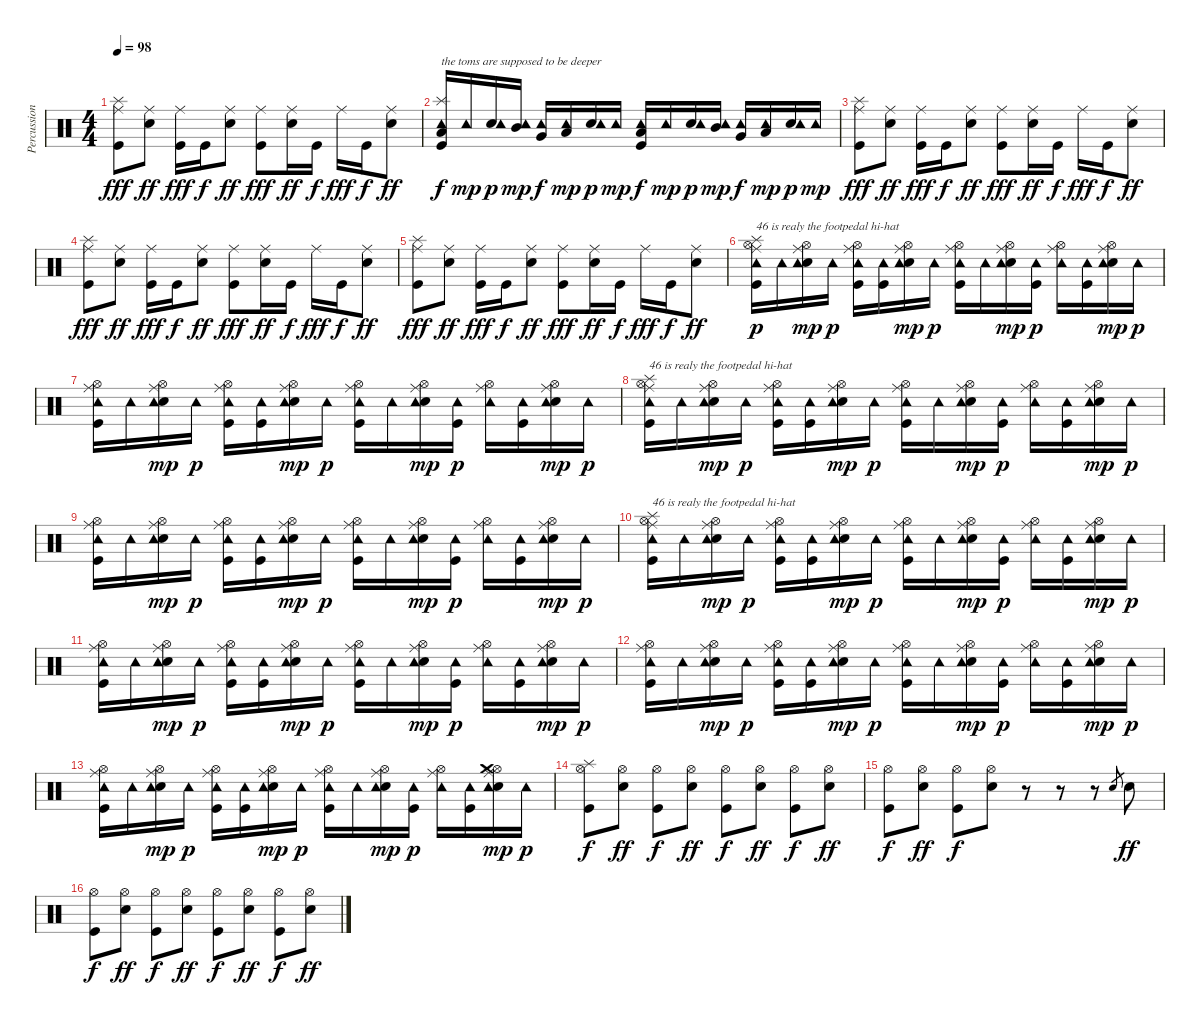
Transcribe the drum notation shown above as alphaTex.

\track ("Percussion" "Percussion") {instrument percussion}
\staff {score}
\articulation defaults
\ts (4 4)
\tempo 98
\clef neutral
\ks c
("Ride (middle)" "Kick (hit)" "Splash (hit)").8{dy fff} ("Ride (middle)" "Snare (hit) 2").8{dy ff} ("Ride (middle)" "Kick (hit)").16{dy fff} "Kick (hit)".16{dy f} ("Ride (middle)" "Snare (hit) 2").8{dy ff} ("Ride (middle)" "Kick (hit)").8{dy fff} ("Ride (middle)" "Snare (hit) 2").16{dy ff} "Kick (hit)".16{dy f} "Ride (middle)".16{dy fff} "Kick (hit)".16{dy f} ("Ride (middle)" "Snare (hit) 2").8{dy ff} |
("Splash (hit)" "Low Floor Tom (hit)" "Kick (hit)" "Tambourine (hit)").16{txt "the toms are supposed to be deeper" dy f} "Tambourine (hit)".16{dy mp} ("Snare (hit) 2" "Tambourine (hit)").16{dy p} ("Mid Tom (hit)" "Tambourine (hit)").16{dy mp} ("Very Low Tom (hit)" "Tambourine (hit)").16{dy f} ("Low Tom (hit)" "Tambourine (hit)").16{dy mp} ("Snare (hit) 2" "Tambourine (hit)").16{dy p} "Tambourine (hit)".16{dy mp} ("Low Floor Tom (hit)" "Kick (hit)" "Tambourine (hit)").16{dy f} "Tambourine (hit)".16{dy mp} ("Snare (hit) 2" "Tambourine (hit)").16{dy p} ("Mid Tom (hit)" "Tambourine (hit)").16{dy mp} ("Very Low Tom (hit)" "Tambourine (hit)").16{dy f} ("Low Tom (hit)" "Tambourine (hit)").16{dy mp} ("Snare (hit) 2" "Tambourine (hit)").16{dy p} "Tambourine (hit)".16{dy mp} |
("Ride (middle)" "Kick (hit)" "Splash (hit)").8{dy fff} ("Ride (middle)" "Snare (hit) 2").8{dy ff} ("Ride (middle)" "Kick (hit)").16{dy fff} "Kick (hit)".16{dy f} ("Ride (middle)" "Snare (hit) 2").8{dy ff} ("Ride (middle)" "Kick (hit)").8{dy fff} ("Ride (middle)" "Snare (hit) 2").16{dy ff} "Kick (hit)".16{dy f} "Ride (middle)".16{dy fff} "Kick (hit)".16{dy f} ("Ride (middle)" "Snare (hit) 2").8{dy ff} |
("Ride (middle)" "Kick (hit)" "Splash (hit)").8{dy fff} ("Ride (middle)" "Snare (hit) 2").8{dy ff} ("Ride (middle)" "Kick (hit)").16{dy fff} "Kick (hit)".16{dy f} ("Ride (middle)" "Snare (hit) 2").8{dy ff} ("Ride (middle)" "Kick (hit)").8{dy fff} ("Ride (middle)" "Snare (hit) 2").16{dy ff} "Kick (hit)".16{dy f} "Ride (middle)".16{dy fff} "Kick (hit)".16{dy f} ("Ride (middle)" "Snare (hit) 2").8{dy ff} |
("Ride (middle)" "Kick (hit)" "Splash (hit)").8{dy fff} ("Ride (middle)" "Snare (hit) 2").8{dy ff} ("Ride (middle)" "Kick (hit)").16{dy fff} "Kick (hit)".16{dy f} ("Ride (middle)" "Snare (hit) 2").8{dy ff} ("Ride (middle)" "Kick (hit)").8{dy fff} ("Ride (middle)" "Snare (hit) 2").16{dy ff} "Kick (hit)".16{dy f} "Ride (middle)".16{dy fff} "Kick (hit)".16{dy f} ("Ride (middle)" "Snare (hit) 2").8{dy ff} |
("Ride (middle)" "Hi-Hat (open)" "Kick (hit)" "Tambourine (hit)" "Splash (hit)").16{txt "46 is realy the footpedal hi-hat" dy p} "Tambourine (hit)".16 ("Ride (middle)" "Hi-Hat (open)" "Snare (hit) 2" "Tambourine (hit)").16{dy mp} "Tambourine (hit)".16{dy p} ("Ride (middle)" "Hi-Hat (open)" "Kick (hit)" "Tambourine (hit)").16 ("Kick (hit)" "Tambourine (hit)").16 ("Ride (middle)" "Hi-Hat (open)" "Snare (hit) 2" "Tambourine (hit)").16{dy mp} "Tambourine (hit)".16{dy p} ("Ride (middle)" "Hi-Hat (open)" "Kick (hit)" "Tambourine (hit)").16 "Tambourine (hit)".16 ("Ride (middle)" "Hi-Hat (open)" "Snare (hit) 2" "Tambourine (hit)").16{dy mp} ("Kick (hit)" "Tambourine (hit)").16{dy p} ("Ride (middle)" "Hi-Hat (open)" "Tambourine (hit)").16 ("Kick (hit)" "Tambourine (hit)").16 ("Ride (middle)" "Hi-Hat (open)" "Snare (hit) 2" "Tambourine (hit)").16{dy mp} "Tambourine (hit)".16{dy p} |
("Ride (middle)" "Hi-Hat (open)" "Kick (hit)" "Tambourine (hit)").16 "Tambourine (hit)".16 ("Ride (middle)" "Hi-Hat (open)" "Snare (hit) 2" "Tambourine (hit)").16{dy mp} "Tambourine (hit)".16{dy p} ("Ride (middle)" "Hi-Hat (open)" "Kick (hit)" "Tambourine (hit)").16 ("Kick (hit)" "Tambourine (hit)").16 ("Ride (middle)" "Hi-Hat (open)" "Snare (hit) 2" "Tambourine (hit)").16{dy mp} "Tambourine (hit)".16{dy p} ("Ride (middle)" "Hi-Hat (open)" "Kick (hit)" "Tambourine (hit)").16 "Tambourine (hit)".16 ("Ride (middle)" "Hi-Hat (open)" "Snare (hit) 2" "Tambourine (hit)").16{dy mp} ("Kick (hit)" "Tambourine (hit)").16{dy p} ("Ride (middle)" "Hi-Hat (open)" "Tambourine (hit)").16 ("Kick (hit)" "Tambourine (hit)").16 ("Ride (middle)" "Hi-Hat (open)" "Snare (hit) 2" "Tambourine (hit)").16{dy mp} "Tambourine (hit)".16{dy p} |
("Ride (middle)" "Hi-Hat (open)" "Kick (hit)" "Tambourine (hit)" "Splash (hit)").16{txt "46 is realy the footpedal hi-hat"} "Tambourine (hit)".16 ("Ride (middle)" "Hi-Hat (open)" "Snare (hit) 2" "Tambourine (hit)").16{dy mp} "Tambourine (hit)".16{dy p} ("Ride (middle)" "Hi-Hat (open)" "Kick (hit)" "Tambourine (hit)").16 ("Kick (hit)" "Tambourine (hit)").16 ("Ride (middle)" "Hi-Hat (open)" "Snare (hit) 2" "Tambourine (hit)").16{dy mp} "Tambourine (hit)".16{dy p} ("Ride (middle)" "Hi-Hat (open)" "Kick (hit)" "Tambourine (hit)").16 "Tambourine (hit)".16 ("Ride (middle)" "Hi-Hat (open)" "Snare (hit) 2" "Tambourine (hit)").16{dy mp} ("Kick (hit)" "Tambourine (hit)").16{dy p} ("Ride (middle)" "Hi-Hat (open)" "Tambourine (hit)").16 ("Kick (hit)" "Tambourine (hit)").16 ("Ride (middle)" "Hi-Hat (open)" "Snare (hit) 2" "Tambourine (hit)").16{dy mp} "Tambourine (hit)".16{dy p} |
("Ride (middle)" "Hi-Hat (open)" "Kick (hit)" "Tambourine (hit)").16 "Tambourine (hit)".16 ("Ride (middle)" "Hi-Hat (open)" "Snare (hit) 2" "Tambourine (hit)").16{dy mp} "Tambourine (hit)".16{dy p} ("Ride (middle)" "Hi-Hat (open)" "Kick (hit)" "Tambourine (hit)").16 ("Kick (hit)" "Tambourine (hit)").16 ("Ride (middle)" "Hi-Hat (open)" "Snare (hit) 2" "Tambourine (hit)").16{dy mp} "Tambourine (hit)".16{dy p} ("Ride (middle)" "Hi-Hat (open)" "Kick (hit)" "Tambourine (hit)").16 "Tambourine (hit)".16 ("Ride (middle)" "Hi-Hat (open)" "Snare (hit) 2" "Tambourine (hit)").16{dy mp} ("Kick (hit)" "Tambourine (hit)").16{dy p} ("Ride (middle)" "Hi-Hat (open)" "Tambourine (hit)").16 ("Kick (hit)" "Tambourine (hit)").16 ("Ride (middle)" "Hi-Hat (open)" "Snare (hit) 2" "Tambourine (hit)").16{dy mp} "Tambourine (hit)".16{dy p} |
("Ride (middle)" "Hi-Hat (open)" "Kick (hit)" "Tambourine (hit)" "Splash (hit)").16{txt "46 is realy the footpedal hi-hat"} "Tambourine (hit)".16 ("Ride (middle)" "Hi-Hat (open)" "Snare (hit) 2" "Tambourine (hit)").16{dy mp} "Tambourine (hit)".16{dy p} ("Ride (middle)" "Hi-Hat (open)" "Kick (hit)" "Tambourine (hit)").16 ("Kick (hit)" "Tambourine (hit)").16 ("Ride (middle)" "Hi-Hat (open)" "Snare (hit) 2" "Tambourine (hit)").16{dy mp} "Tambourine (hit)".16{dy p} ("Ride (middle)" "Hi-Hat (open)" "Kick (hit)" "Tambourine (hit)").16 "Tambourine (hit)".16 ("Ride (middle)" "Hi-Hat (open)" "Snare (hit) 2" "Tambourine (hit)").16{dy mp} ("Kick (hit)" "Tambourine (hit)").16{dy p} ("Ride (middle)" "Hi-Hat (open)" "Tambourine (hit)").16 ("Kick (hit)" "Tambourine (hit)").16 ("Ride (middle)" "Hi-Hat (open)" "Snare (hit) 2" "Tambourine (hit)").16{dy mp} "Tambourine (hit)".16{dy p} |
("Ride (middle)" "Hi-Hat (open)" "Kick (hit)" "Tambourine (hit)").16 "Tambourine (hit)".16 ("Ride (middle)" "Hi-Hat (open)" "Snare (hit) 2" "Tambourine (hit)").16{dy mp} "Tambourine (hit)".16{dy p} ("Ride (middle)" "Hi-Hat (open)" "Kick (hit)" "Tambourine (hit)").16 ("Kick (hit)" "Tambourine (hit)").16 ("Ride (middle)" "Hi-Hat (open)" "Snare (hit) 2" "Tambourine (hit)").16{dy mp} "Tambourine (hit)".16{dy p} ("Ride (middle)" "Hi-Hat (open)" "Kick (hit)" "Tambourine (hit)").16 "Tambourine (hit)".16 ("Ride (middle)" "Hi-Hat (open)" "Snare (hit) 2" "Tambourine (hit)").16{dy mp} ("Kick (hit)" "Tambourine (hit)").16{dy p} ("Ride (middle)" "Hi-Hat (open)" "Tambourine (hit)").16 ("Kick (hit)" "Tambourine (hit)").16 ("Ride (middle)" "Hi-Hat (open)" "Snare (hit) 2" "Tambourine (hit)").16{dy mp} "Tambourine (hit)".16{dy p} |
("Ride (middle)" "Hi-Hat (open)" "Kick (hit)" "Tambourine (hit)").16 "Tambourine (hit)".16 ("Ride (middle)" "Hi-Hat (open)" "Snare (hit) 2" "Tambourine (hit)").16{dy mp} "Tambourine (hit)".16{dy p} ("Ride (middle)" "Hi-Hat (open)" "Kick (hit)" "Tambourine (hit)").16 ("Kick (hit)" "Tambourine (hit)").16 ("Ride (middle)" "Hi-Hat (open)" "Snare (hit) 2" "Tambourine (hit)").16{dy mp} "Tambourine (hit)".16{dy p} ("Ride (middle)" "Hi-Hat (open)" "Kick (hit)" "Tambourine (hit)").16 "Tambourine (hit)".16 ("Ride (middle)" "Hi-Hat (open)" "Snare (hit) 2" "Tambourine (hit)").16{dy mp} ("Kick (hit)" "Tambourine (hit)").16{dy p} ("Ride (middle)" "Hi-Hat (open)" "Tambourine (hit)").16 ("Kick (hit)" "Tambourine (hit)").16 ("Ride (middle)" "Hi-Hat (open)" "Snare (hit) 2" "Tambourine (hit)").16{dy mp} "Tambourine (hit)".16{dy p} |
("Ride (middle)" "Hi-Hat (open)" "Kick (hit)" "Tambourine (hit)").16 "Tambourine (hit)".16 ("Ride (middle)" "Hi-Hat (open)" "Snare (hit) 2" "Tambourine (hit)").16{dy mp} "Tambourine (hit)".16{dy p} ("Ride (middle)" "Hi-Hat (open)" "Kick (hit)" "Tambourine (hit)").16 ("Kick (hit)" "Tambourine (hit)").16 ("Ride (middle)" "Hi-Hat (open)" "Snare (hit) 2" "Tambourine (hit)").16{dy mp} "Tambourine (hit)".16{dy p} ("Ride (middle)" "Hi-Hat (open)" "Kick (hit)" "Tambourine (hit)").16 "Tambourine (hit)".16 ("Ride (middle)" "Hi-Hat (open)" "Snare (hit) 2" "Tambourine (hit)").16{dy mp} ("Kick (hit)" "Tambourine (hit)").16{dy p} ("Ride (middle)" "Hi-Hat (open)" "Tambourine (hit)").16 ("Kick (hit)" "Tambourine (hit)").16 ("Ride (middle)" "Hi-Hat (open)" "Snare (hit) 2" "Tambourine (hit)" "Crash medium (hit)").16{dy mp} "Tambourine (hit)".16{dy p} |
("Splash (hit)" "Hi-Hat (open)" "Kick (hit)").8{dy f} ("Hi-Hat (open)" "Snare (hit) 2").8{dy ff} ("Hi-Hat (open)" "Kick (hit)").8{dy f} ("Hi-Hat (open)" "Snare (hit) 2").8{dy ff} ("Hi-Hat (open)" "Kick (hit)").8{dy f} ("Hi-Hat (open)" "Snare (hit) 2").8{dy ff} ("Hi-Hat (open)" "Kick (hit)").8{dy f} ("Hi-Hat (open)" "Snare (hit) 2").8{dy ff} |
("Hi-Hat (open)" "Kick (hit)").8{dy f} ("Hi-Hat (open)" "Snare (hit) 2").8{dy ff} ("Hi-Hat (open)" "Kick (hit)").8{dy f} ("Hi-Hat (open)" "Snare (hit) 2").8 r.8 r.8 r.8 "Snare (hit) 2".8{gr} "Snare (hit) 2".8{dy ff} |
("Hi-Hat (open)" "Kick (hit)").8{dy f} ("Hi-Hat (open)" "Snare (hit) 2").8{dy ff} ("Hi-Hat (open)" "Kick (hit)").8{dy f} ("Hi-Hat (open)" "Snare (hit) 2").8{dy ff} ("Hi-Hat (open)" "Kick (hit)").8{dy f} ("Hi-Hat (open)" "Snare (hit) 2").8{dy ff} ("Hi-Hat (open)" "Kick (hit)").8{dy f} ("Hi-Hat (open)" "Snare (hit) 2").8{dy ff}
